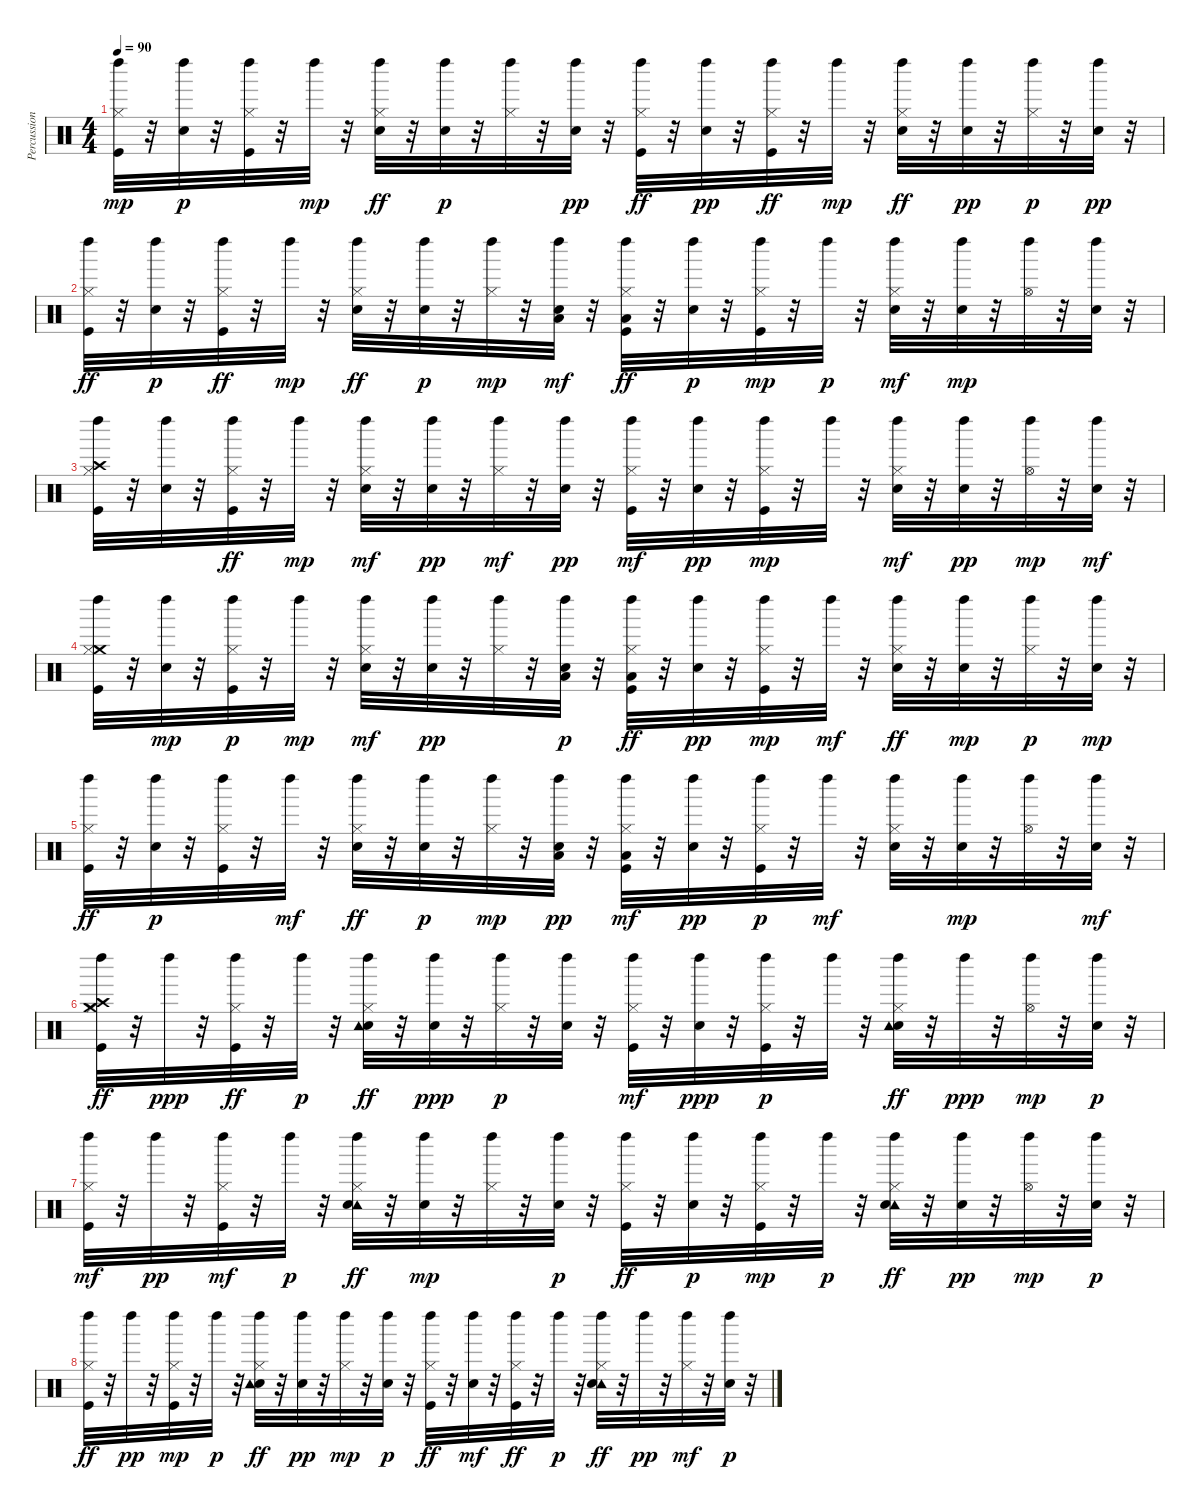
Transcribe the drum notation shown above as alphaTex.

\track ("Percussions" "Percussion") {instrument percussion}
\staff {score}
\articulation defaults
\ts (4 4)
\tempo 90
\clef neutral
\ks c
("Kick (hit)" "Left Maraca (hit)" "Hi-Hat (closed)").32{dy mp} r.32 ("Electric Snare (hit)" "Left Maraca (hit)").32{dy p} r.32 ("Kick (hit)" "Hi-Hat (closed)" "Left Maraca (hit)").32 r.32 "Left Maraca (hit)".32{dy mp} r.32 ("Electric Snare (hit)" "Left Maraca (hit)" "Hi-Hat (closed)").32{dy ff} r.32 ("Electric Snare (hit)" "Left Maraca (hit)").32{dy p} r.32 ("Hi-Hat (closed)" "Left Maraca (hit)").32 r.32 ("Left Maraca (hit)" "Electric Snare (hit)").32{dy pp} r.32 ("Kick (hit)" "Left Maraca (hit)" "Hi-Hat (closed)").32{dy ff} r.32 ("Left Maraca (hit)" "Electric Snare (hit)").32{dy pp} r.32 ("Left Maraca (hit)" "Hi-Hat (closed)" "Kick (hit)").32{dy ff} r.32 "Left Maraca (hit)".32{dy mp} r.32 ("Left Maraca (hit)" "Hi-Hat (closed)" "Electric Snare (hit)").32{dy ff} r.32 ("Left Maraca (hit)" "Electric Snare (hit)").32{dy pp} r.32 ("Left Maraca (hit)" "Hi-Hat (closed)").32{dy p} r.32 ("Left Maraca (hit)" "Electric Snare (hit)").32{dy pp} r.32 |
("Left Maraca (hit)" "Hi-Hat (closed)" "Kick (hit)").32{dy ff} r.32 ("Electric Snare (hit)" "Left Maraca (hit)").32{dy p} r.32 ("Left Maraca (hit)" "Hi-Hat (closed)" "Kick (hit)").32{dy ff} r.32 "Left Maraca (hit)".32{dy mp} r.32 ("Electric Snare (hit)" "Left Maraca (hit)" "Hi-Hat (closed)").32{dy ff} r.32 ("Electric Snare (hit)" "Left Maraca (hit)").32{dy p} r.32 ("Hi-Hat (closed)" "Left Maraca (hit)").32{dy mp} r.32 ("Electric Snare (hit)" "Low Tom (hit)" "Left Maraca (hit)").32{dy mf} r.32 ("Kick (hit)" "Low Floor Tom (hit)" "Left Maraca (hit)" "Hi-Hat (closed)").32{dy ff} r.32 ("Electric Snare (hit)" "Left Maraca (hit)").32{dy p} r.32 ("Hi-Hat (closed)" "Kick (hit)" "Left Maraca (hit)").32{dy mp} r.32 "Left Maraca (hit)".32{dy p} r.32 ("Hi-Hat (closed)" "Electric Snare (hit)" "Left Maraca (hit)").32{dy mf} r.32 ("Electric Snare (hit)" "Left Maraca (hit)").32{dy mp} r.32 ("Hi-Hat (open)" "Left Maraca (hit)").32 r.32 ("Electric Snare (hit)" "Left Maraca (hit)").32 r.32 |
("Kick (hit)" "Left Maraca (hit)" "Crash high (hit)" "Hi-Hat (closed)").32 r.32 ("Electric Snare (hit)" "Left Maraca (hit)").32 r.32 ("Hi-Hat (closed)" "Left Maraca (hit)" "Kick (hit)").32{dy ff} r.32 "Left Maraca (hit)".32{dy mp} r.32 ("Hi-Hat (closed)" "Electric Snare (hit)" "Left Maraca (hit)").32{dy mf} r.32 ("Left Maraca (hit)" "Electric Snare (hit)").32{dy pp} r.32 ("Left Maraca (hit)" "Hi-Hat (closed)").32{dy mf} r.32 ("Left Maraca (hit)" "Electric Snare (hit)").32{dy pp} r.32 ("Kick (hit)" "Left Maraca (hit)" "Hi-Hat (closed)").32{dy mf} r.32 ("Left Maraca (hit)" "Electric Snare (hit)").32{dy pp} r.32 ("Hi-Hat (closed)" "Kick (hit)" "Left Maraca (hit)").32{dy mp} r.32 "Left Maraca (hit)".32 r.32 ("Hi-Hat (closed)" "Electric Snare (hit)" "Left Maraca (hit)").32{dy mf} r.32 ("Electric Snare (hit)" "Left Maraca (hit)").32{dy pp} r.32 ("Hi-Hat (open)" "Left Maraca (hit)").32{dy mp} r.32 ("Electric Snare (hit)" "Left Maraca (hit)").32{dy mf} r.32 |
("Kick (hit)" "Crash medium (hit)" "Hi-Hat (closed)" "Left Maraca (hit)").32 r.32 ("Electric Snare (hit)" "Left Maraca (hit)").32{dy mp} r.32 ("Kick (hit)" "Hi-Hat (closed)" "Left Maraca (hit)").32{dy p} r.32 "Left Maraca (hit)".32{dy mp} r.32 ("Hi-Hat (closed)" "Electric Snare (hit)" "Left Maraca (hit)").32{dy mf} r.32 ("Left Maraca (hit)" "Electric Snare (hit)").32{dy pp} r.32 ("Hi-Hat (closed)" "Left Maraca (hit)").32 r.32 ("Electric Snare (hit)" "Low Tom (hit)" "Left Maraca (hit)").32{dy p} r.32 ("Kick (hit)" "Low Floor Tom (hit)" "Left Maraca (hit)" "Hi-Hat (closed)").32{dy ff} r.32 ("Left Maraca (hit)" "Electric Snare (hit)").32{dy pp} r.32 ("Kick (hit)" "Hi-Hat (closed)" "Left Maraca (hit)").32{dy mp} r.32 "Left Maraca (hit)".32{dy mf} r.32 ("Electric Snare (hit)" "Left Maraca (hit)" "Hi-Hat (closed)").32{dy ff} r.32 ("Electric Snare (hit)" "Left Maraca (hit)").32{dy mp} r.32 ("Hi-Hat (closed)" "Left Maraca (hit)").32{dy p} r.32 ("Electric Snare (hit)" "Left Maraca (hit)").32{dy mp} r.32 |
("Kick (hit)" "Left Maraca (hit)" "Hi-Hat (closed)").32{dy ff} r.32 ("Electric Snare (hit)" "Left Maraca (hit)").32{dy p} r.32 ("Kick (hit)" "Hi-Hat (closed)" "Left Maraca (hit)").32 r.32 "Left Maraca (hit)".32{dy mf} r.32 ("Electric Snare (hit)" "Left Maraca (hit)" "Hi-Hat (closed)").32{dy ff} r.32 ("Electric Snare (hit)" "Left Maraca (hit)").32{dy p} r.32 ("Hi-Hat (closed)" "Left Maraca (hit)").32{dy mp} r.32 ("Low Tom (hit)" "Left Maraca (hit)" "Electric Snare (hit)").32{dy pp} r.32 ("Left Maraca (hit)" "Hi-Hat (closed)" "Kick (hit)" "Low Floor Tom (hit)").32{dy mf} r.32 ("Electric Snare (hit)" "Left Maraca (hit)").32{dy pp} r.32 ("Hi-Hat (closed)" "Kick (hit)" "Left Maraca (hit)").32{dy p} r.32 "Left Maraca (hit)".32{dy mf} r.32 ("Hi-Hat (closed)" "Electric Snare (hit)" "Left Maraca (hit)").32 r.32 ("Electric Snare (hit)" "Left Maraca (hit)").32{dy mp} r.32 ("Hi-Hat (open)" "Left Maraca (hit)").32 r.32 ("Electric Snare (hit)" "Left Maraca (hit)").32{dy mf} r.32 |
("Kick (hit)" "Crash high (hit)" "Crash medium (hit)" "Left Maraca (hit)" "Hi-Hat (closed)").32{dy ff} r.32 "Left Maraca (hit)".32{dy ppp} r.32 ("Left Maraca (hit)" "Hi-Hat (closed)" "Kick (hit)").32{dy ff} r.32 "Left Maraca (hit)".32{dy p} r.32 ("Hi-Hat (closed)" "Electric Snare (hit)" "Tambourine (hit)" "Left Maraca (hit)").32{dy ff} r.32 ("Electric Snare (hit)" "Left Maraca (hit)").32{dy ppp} r.32 ("Hi-Hat (closed)" "Left Maraca (hit)").32{dy p} r.32 ("Electric Snare (hit)" "Left Maraca (hit)").32 r.32 ("Hi-Hat (closed)" "Kick (hit)" "Left Maraca (hit)").32{dy mf} r.32 ("Electric Snare (hit)" "Left Maraca (hit)").32{dy ppp} r.32 ("Hi-Hat (closed)" "Kick (hit)" "Left Maraca (hit)").32{dy p} r.32 "Left Maraca (hit)".32 r.32 ("Electric Snare (hit)" "Hi-Hat (closed)" "Tambourine (hit)" "Left Maraca (hit)").32{dy ff} r.32 "Left Maraca (hit)".32{dy ppp} r.32 ("Hi-Hat (open)" "Left Maraca (hit)").32{dy mp} r.32 ("Electric Snare (hit)" "Left Maraca (hit)").32{dy p} r.32 |
("Kick (hit)" "Left Maraca (hit)" "Hi-Hat (closed)").32{dy mf} r.32 "Left Maraca (hit)".32{dy pp} r.32 ("Kick (hit)" "Left Maraca (hit)" "Hi-Hat (closed)").32{dy mf} r.32 "Left Maraca (hit)".32{dy p} r.32 ("Tambourine (hit)" "Electric Snare (hit)" "Hi-Hat (closed)" "Left Maraca (hit)").32{dy ff} r.32 ("Left Maraca (hit)" "Electric Snare (hit)").32{dy mp} r.32 ("Hi-Hat (closed)" "Left Maraca (hit)").32 r.32 ("Electric Snare (hit)" "Left Maraca (hit)").32{dy p} r.32 ("Hi-Hat (closed)" "Kick (hit)" "Left Maraca (hit)").32{dy ff} r.32 ("Electric Snare (hit)" "Left Maraca (hit)").32{dy p} r.32 ("Hi-Hat (closed)" "Kick (hit)" "Left Maraca (hit)").32{dy mp} r.32 "Left Maraca (hit)".32{dy p} r.32 ("Tambourine (hit)" "Electric Snare (hit)" "Hi-Hat (closed)" "Left Maraca (hit)").32{dy ff} r.32 ("Electric Snare (hit)" "Left Maraca (hit)").32{dy pp} r.32 ("Hi-Hat (open)" "Left Maraca (hit)").32{dy mp} r.32 ("Electric Snare (hit)" "Left Maraca (hit)").32{dy p} r.32 |
("Hi-Hat (closed)" "Kick (hit)" "Left Maraca (hit)").32{dy ff} r.32 "Left Maraca (hit)".32{dy pp} r.32 ("Hi-Hat (closed)" "Kick (hit)" "Left Maraca (hit)").32{dy mp} r.32 "Left Maraca (hit)".32{dy p} r.32 ("Hi-Hat (closed)" "Electric Snare (hit)" "Tambourine (hit)" "Left Maraca (hit)").32{dy ff} r.32 ("Electric Snare (hit)" "Left Maraca (hit)").32{dy pp} r.32 ("Hi-Hat (closed)" "Left Maraca (hit)").32{dy mp} r.32 ("Electric Snare (hit)" "Left Maraca (hit)").32{dy p} r.32 ("Left Maraca (hit)" "Hi-Hat (closed)" "Kick (hit)").32{dy ff} r.32 ("Left Maraca (hit)" "Electric Snare (hit)").32{dy mf} r.32 ("Left Maraca (hit)" "Hi-Hat (closed)" "Kick (hit)").32{dy ff} r.32 "Left Maraca (hit)".32{dy p} r.32 ("Tambourine (hit)" "Hi-Hat (closed)" "Electric Snare (hit)" "Left Maraca (hit)").32{dy ff} r.32 "Left Maraca (hit)".32{dy pp} r.32 ("Left Maraca (hit)" "Hi-Hat (closed)").32{dy mf} r.32 ("Electric Snare (hit)" "Left Maraca (hit)").32{dy p} r.32
